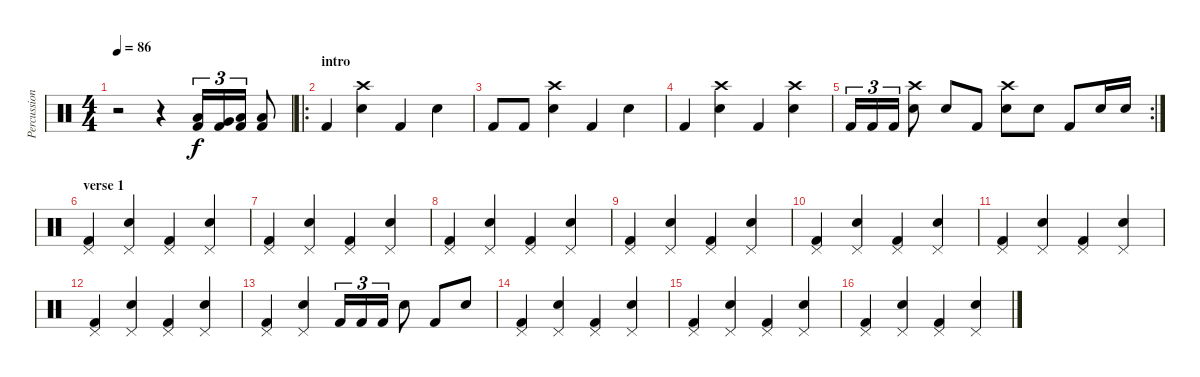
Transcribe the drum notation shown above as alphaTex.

\track ("Percussion" "Percussion") {instrument percussion}
\staff {score}
\articulation defaults
\ts (4 4)
\tempo 86
\clef neutral
\ks c
r.2{dy f} r.4 ("Low Tom (hit)" "Kick (hit) 2").16{tu (3 2)} ("Very Low Tom (hit)" "Kick (hit) 2").16{tu (3 2)} ("Low Floor Tom (hit)" "Kick (hit) 2").16{tu (3 2)} ("Low Tom (hit)" "Kick (hit) 2").8 |
\ro
\section ("" "intro")
"Kick (hit) 2".4 ("Crash high (hit)" "Electric Snare (hit)").4 "Kick (hit) 2".4 "Electric Snare (hit)".4 |
"Kick (hit) 2".8 "Kick (hit) 2".8 ("Crash high (hit)" "Electric Snare (hit)").4 "Kick (hit) 2".4 "Electric Snare (hit)".4 |
"Kick (hit) 2".4 ("Crash high (hit)" "Electric Snare (hit)").4 "Kick (hit) 2".4 ("Crash high (hit)" "Electric Snare (hit)").4 |
\rc 2 "Kick (hit) 2".16{tu (3 2)} "Kick (hit) 2".16{tu (3 2)} "Kick (hit) 2".16{tu (3 2)}
("Crash high (hit)" "Electric Snare (hit)").8 "Electric Snare (hit)".8 "Kick (hit) 2".8 ("Crash high (hit)" "Electric Snare (hit)").8 "Electric Snare (hit)".8 "Kick (hit) 2".8 "Electric Snare (hit)".16 "Electric Snare (hit)".16 |
\section ("" "verse 1")
("Pedal Hi-Hat (hit)" "Kick (hit) 2").4 ("Pedal Hi-Hat (hit)" "Electric Snare (hit)").4 ("Pedal Hi-Hat (hit)" "Kick (hit) 2").4 ("Pedal Hi-Hat (hit)" "Electric Snare (hit)").4 |
("Pedal Hi-Hat (hit)" "Kick (hit) 2").4 ("Pedal Hi-Hat (hit)" "Electric Snare (hit)").4 ("Pedal Hi-Hat (hit)" "Kick (hit) 2").4 ("Pedal Hi-Hat (hit)" "Electric Snare (hit)").4 |
("Pedal Hi-Hat (hit)" "Kick (hit) 2").4 ("Pedal Hi-Hat (hit)" "Electric Snare (hit)").4 ("Pedal Hi-Hat (hit)" "Kick (hit) 2").4 ("Pedal Hi-Hat (hit)" "Electric Snare (hit)").4 |
("Pedal Hi-Hat (hit)" "Kick (hit) 2").4 ("Pedal Hi-Hat (hit)" "Electric Snare (hit)").4 ("Pedal Hi-Hat (hit)" "Kick (hit) 2").4 ("Pedal Hi-Hat (hit)" "Electric Snare (hit)").4 |
("Pedal Hi-Hat (hit)" "Kick (hit) 2").4 ("Pedal Hi-Hat (hit)" "Electric Snare (hit)").4 ("Pedal Hi-Hat (hit)" "Kick (hit) 2").4 ("Pedal Hi-Hat (hit)" "Electric Snare (hit)").4 |
("Pedal Hi-Hat (hit)" "Kick (hit) 2").4 ("Pedal Hi-Hat (hit)" "Electric Snare (hit)").4 ("Pedal Hi-Hat (hit)" "Kick (hit) 2").4 ("Pedal Hi-Hat (hit)" "Electric Snare (hit)").4 |
("Pedal Hi-Hat (hit)" "Kick (hit) 2").4 ("Pedal Hi-Hat (hit)" "Electric Snare (hit)").4 ("Pedal Hi-Hat (hit)" "Kick (hit) 2").4 ("Pedal Hi-Hat (hit)" "Electric Snare (hit)").4 |
("Pedal Hi-Hat (hit)" "Kick (hit) 2").4 ("Pedal Hi-Hat (hit)" "Electric Snare (hit)").4 "Kick (hit) 2".16{tu (3 2)} "Kick (hit) 2".16{tu (3 2)} "Kick (hit) 2".16{tu (3 2)} "Electric Snare (hit)".8 "Kick (hit) 2".8 "Electric Snare (hit)".8 |
("Pedal Hi-Hat (hit)" "Kick (hit) 2").4 ("Pedal Hi-Hat (hit)" "Electric Snare (hit)").4 ("Pedal Hi-Hat (hit)" "Kick (hit) 2").4 ("Pedal Hi-Hat (hit)" "Electric Snare (hit)").4 |
("Pedal Hi-Hat (hit)" "Kick (hit) 2").4 ("Pedal Hi-Hat (hit)" "Electric Snare (hit)").4 ("Pedal Hi-Hat (hit)" "Kick (hit) 2").4 ("Pedal Hi-Hat (hit)" "Electric Snare (hit)").4 |
("Pedal Hi-Hat (hit)" "Kick (hit) 2").4 ("Pedal Hi-Hat (hit)" "Electric Snare (hit)").4 ("Pedal Hi-Hat (hit)" "Kick (hit) 2").4 ("Pedal Hi-Hat (hit)" "Electric Snare (hit)").4
